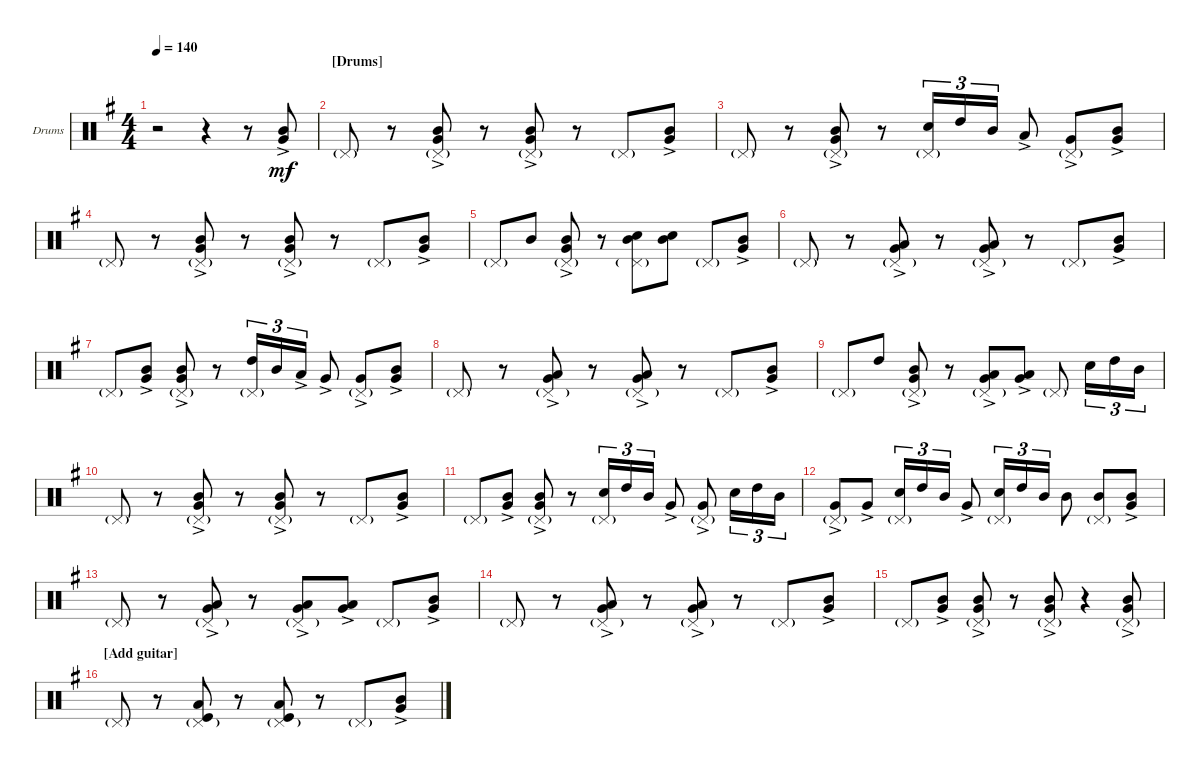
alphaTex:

\defaultSystemsLayout 4
\bracketExtendMode groupsimilarinstruments
\firstSystemTrackNameOrientation horizontal
\otherSystemsTrackNameOrientation horizontal
\track ("Drumkit" "Drums") {instrument percussion}
\staff {score}
\articulation defaults
\ts (4 4)
\tempo 140
\clef neutral
\ks g
r.2{dy mf} r.4 r.8 ("Very Low Tom (hit)"{ac} "Mid Tom (hit)").8 |
\section ("" "[Drums]")
"Pedal Hi-Hat (hit)"{g}.8 r.8 ("Very Low Tom (hit)"{ac} "Mid Tom (hit)" "Pedal Hi-Hat (hit)"{g}).8 r.8 ("Very Low Tom (hit)"{ac} "Mid Tom (hit)" "Pedal Hi-Hat (hit)"{g}).8 r.8 "Pedal Hi-Hat (hit)"{g}.8 ("Very Low Tom (hit)"{ac} "Mid Tom (hit)").8 |
"Pedal Hi-Hat (hit)"{g}.8 r.8 ("Very Low Tom (hit)"{ac} "Mid Tom (hit)" "Pedal Hi-Hat (hit)"{g}).8 r.8 ("Snare (hit) 2" "Pedal Hi-Hat (hit)"{g}).16{tu (3 2)} "High Tom (hit)".16{tu (3 2)} "Mid Tom (hit)".16{tu (3 2)} "Low Tom (hit)"{ac}.8 ("Very Low Tom (hit)"{ac} "Pedal Hi-Hat (hit)"{g}).8 ("Very Low Tom (hit)"{ac} "Mid Tom (hit)").8 |
"Pedal Hi-Hat (hit)"{g}.8 r.8 ("Very Low Tom (hit)"{ac} "Mid Tom (hit)" "Pedal Hi-Hat (hit)"{g}).8 r.8 ("Very Low Tom (hit)"{ac} "Mid Tom (hit)" "Pedal Hi-Hat (hit)"{g}).8 r.8 "Pedal Hi-Hat (hit)"{g}.8 ("Very Low Tom (hit)"{ac} "Mid Tom (hit)").8 |
"Pedal Hi-Hat (hit)"{g}.8 "Mid Tom (hit)".8 ("Very Low Tom (hit)"{ac} "Mid Tom (hit)" "Pedal Hi-Hat (hit)"{g}).8 r.8 ("Snare (hit) 2" "Mid Tom (hit)" "Pedal Hi-Hat (hit)"{g}).8 ("Snare (hit) 2" "Mid Tom (hit)").8 "Pedal Hi-Hat (hit)"{g}.8 ("Very Low Tom (hit)"{ac} "Mid Tom (hit)").8 |
"Pedal Hi-Hat (hit)"{g}.8 r.8 ("Low Tom (hit)" "Very Low Tom (hit)"{ac} "Pedal Hi-Hat (hit)"{g}).8 r.8 ("Low Tom (hit)" "Very Low Tom (hit)"{ac} "Pedal Hi-Hat (hit)"{g}).8 r.8 "Pedal Hi-Hat (hit)"{g}.8 ("Very Low Tom (hit)"{ac} "Mid Tom (hit)").8 |
"Pedal Hi-Hat (hit)"{g}.8 ("Very Low Tom (hit)"{ac} "Mid Tom (hit)").8 ("Very Low Tom (hit)"{ac} "Mid Tom (hit)" "Pedal Hi-Hat (hit)"{g}).8 r.8 ("High Tom (hit)" "Pedal Hi-Hat (hit)"{g}).16{tu (3 2)} "Mid Tom (hit)".16{tu (3 2)} "Low Tom (hit)"{ac}.16{tu (3 2)} "Very Low Tom (hit)"{ac}.8 ("Very Low Tom (hit)"{ac} "Pedal Hi-Hat (hit)"{g}).8 ("Very Low Tom (hit)"{ac} "Mid Tom (hit)").8 |
"Pedal Hi-Hat (hit)"{g}.8 r.8 ("Low Tom (hit)" "Very Low Tom (hit)"{ac} "Pedal Hi-Hat (hit)"{g}).8 r.8 ("Low Tom (hit)" "Very Low Tom (hit)"{ac} "Pedal Hi-Hat (hit)"{g}).8 r.8 "Pedal Hi-Hat (hit)"{g}.8 ("Very Low Tom (hit)"{ac} "Mid Tom (hit)").8 |
"Pedal Hi-Hat (hit)"{g}.8 "High Tom (hit)".8 ("Very Low Tom (hit)"{ac} "Mid Tom (hit)" "Pedal Hi-Hat (hit)"{g}).8 r.8 ("Low Tom (hit)" "Very Low Tom (hit)"{ac} "Pedal Hi-Hat (hit)"{g}).8 ("Low Tom (hit)" "Very Low Tom (hit)"{ac}).8 "Pedal Hi-Hat (hit)"{g}.8 "Snare (hit) 2".16{tu (3 2)} "High Tom (hit)".16{tu (3 2)} "Mid Tom (hit)".16{tu (3 2)} |
"Pedal Hi-Hat (hit)"{g}.8 r.8 ("Very Low Tom (hit)"{ac} "Mid Tom (hit)" "Pedal Hi-Hat (hit)"{g}).8 r.8 ("Very Low Tom (hit)"{ac} "Mid Tom (hit)" "Pedal Hi-Hat (hit)"{g}).8 r.8 "Pedal Hi-Hat (hit)"{g}.8 ("Very Low Tom (hit)"{ac} "Mid Tom (hit)").8 |
"Pedal Hi-Hat (hit)"{g}.8 ("Very Low Tom (hit)"{ac} "Mid Tom (hit)").8 ("Very Low Tom (hit)"{ac} "Mid Tom (hit)" "Pedal Hi-Hat (hit)"{g}).8 r.8 ("Snare (hit) 2" "Pedal Hi-Hat (hit)"{g}).16{tu (3 2)} "High Tom (hit)".16{tu (3 2)} "Mid Tom (hit)".16{tu (3 2)} "Very Low Tom (hit)"{ac}.8 ("Very Low Tom (hit)"{ac} "Pedal Hi-Hat (hit)"{g}).8 "Snare (hit) 2".16{tu (3 2)} "High Tom (hit)".16{tu (3 2)} "Mid Tom (hit)".16{tu (3 2)} |
("Very Low Tom (hit)"{ac} "Pedal Hi-Hat (hit)"{g}).8 "Very Low Tom (hit)"{ac}.8 ("Snare (hit) 2" "Pedal Hi-Hat (hit)"{g}).16{tu (3 2)} "High Tom (hit)".16{tu (3 2)} "Mid Tom (hit)".16{tu (3 2)} "Very Low Tom (hit)"{ac}.8 ("Snare (hit) 2" "Pedal Hi-Hat (hit)"{g}).16{tu (3 2)} "High Tom (hit)".16{tu (3 2)} "Mid Tom (hit)".16{tu (3 2)} "Mid Tom (hit)".8 ("Mid Tom (hit)" "Pedal Hi-Hat (hit)"{g}).8 ("Very Low Tom (hit)"{ac} "Mid Tom (hit)").8 |
"Pedal Hi-Hat (hit)"{g}.8 r.8 ("Low Tom (hit)" "Very Low Tom (hit)"{ac} "Pedal Hi-Hat (hit)"{g}).8 r.8 ("Low Tom (hit)" "Very Low Tom (hit)"{ac} "Pedal Hi-Hat (hit)"{g}).8 ("Low Tom (hit)" "Very Low Tom (hit)"{ac}).8 "Pedal Hi-Hat (hit)"{g}.8 ("Very Low Tom (hit)"{ac} "Mid Tom (hit)").8 |
"Pedal Hi-Hat (hit)"{g}.8 r.8 ("Low Tom (hit)" "Very Low Tom (hit)"{ac} "Pedal Hi-Hat (hit)"{g}).8 r.8 ("Low Tom (hit)" "Very Low Tom (hit)"{ac} "Pedal Hi-Hat (hit)"{g}).8 r.8 "Pedal Hi-Hat (hit)"{g}.8 ("Very Low Tom (hit)"{ac} "Mid Tom (hit)").8 |
"Pedal Hi-Hat (hit)"{g}.8 ("Very Low Tom (hit)"{ac} "Mid Tom (hit)").8 ("Very Low Tom (hit)"{ac} "Mid Tom (hit)" "Pedal Hi-Hat (hit)"{g}).8 r.8 ("Very Low Tom (hit)"{ac} "Mid Tom (hit)" "Pedal Hi-Hat (hit)"{g}).8 r.4 ("Very Low Tom (hit)"{ac} "Mid Tom (hit)" "Pedal Hi-Hat (hit)"{g}).8 |
\section ("" "[Add guitar]")
"Pedal Hi-Hat (hit)"{g}.8 r.8 ("Kick (hit)" "Low Tom (hit)" "Pedal Hi-Hat (hit)"{g}).8 r.8 ("Kick (hit)" "Low Tom (hit)" "Pedal Hi-Hat (hit)"{g}).8 r.8 "Pedal Hi-Hat (hit)"{g}.8 ("Very Low Tom (hit)"{ac} "Mid Tom (hit)").8
